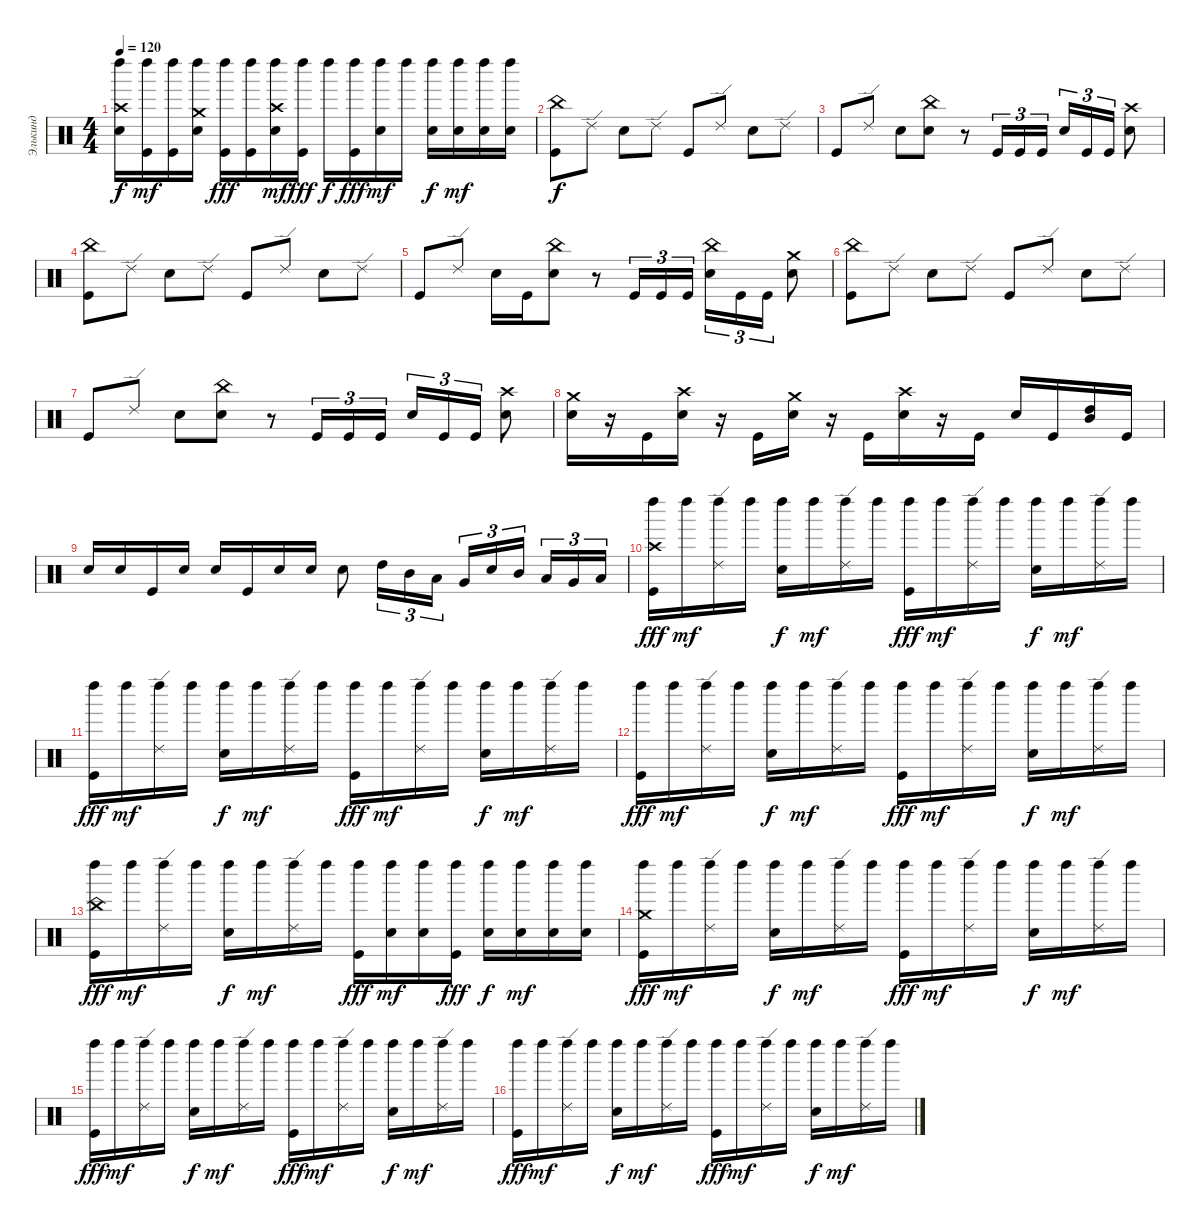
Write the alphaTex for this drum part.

\track ("Элькинд" "Элькинд") {instrument percussion}
\staff {score}
\articulation defaults
\ts (4 4)
\tempo 120
\clef neutral
\ks c
("Crash high (hit)" "Electric Snare (hit)" "Left Maraca (hit)").16{dy f} ("Kick (hit)" "Left Maraca (hit)").16{dy mf} ("Kick (hit)" "Left Maraca (hit)").16 ("Left Maraca (hit)" "Crash medium (hit)" "Electric Snare (hit)").16 ("Kick (hit)" "Left Maraca (hit)").16{dy fff} ("Left Maraca (hit)" "Kick (hit)").16 ("Left Maraca (hit)" "Crash high (hit)" "Electric Snare (hit)").16{dy mf} ("Left Maraca (hit)" "Kick (hit)").16{dy fff} "Left Maraca (hit)".16{dy f} ("Left Maraca (hit)" "Kick (hit)").16{dy fff} ("Electric Snare (hit)" "Left Maraca (hit)").16{dy mf} "Left Maraca (hit)".16 ("Left Maraca (hit)" "Electric Snare (hit)").16{dy f} ("Electric Snare (hit)" "Left Maraca (hit)").16{dy mf} ("Electric Snare (hit)" "Left Maraca (hit)").16 ("Electric Snare (hit)" "Left Maraca (hit)").16 |
("China (hit)" "Kick (hit)").8{dy f} "Ride (edge) 2".8 "Electric Snare (hit)".8 "Ride (edge) 2".8 "Kick (hit)".8 "Ride (edge) 2".8 "Electric Snare (hit)".8 "Ride (edge) 2".8 |
"Kick (hit)".8 "Ride (edge) 2".8 "Electric Snare (hit)".8 ("China (hit)" "Electric Snare (hit)").8 r.8 "Kick (hit)".16{tu (3 2)} "Kick (hit)".16{tu (3 2)} "Kick (hit)".16{tu (3 2)} "Electric Snare (hit)".16{tu (3 2)} "Kick (hit)".16{tu (3 2)} "Kick (hit)".16{tu (3 2)} ("Crash high (hit)" "Electric Snare (hit)").8 |
("China (hit)" "Kick (hit)").8 "Ride (edge) 2".8 "Electric Snare (hit)".8 "Ride (edge) 2".8 "Kick (hit)".8 "Ride (edge) 2".8 "Electric Snare (hit)".8 "Ride (edge) 2".8 |
"Kick (hit)".8 "Ride (edge) 2".8 "Electric Snare (hit)".16 "Kick (hit)".16 ("China (hit)" "Electric Snare (hit)").8 r.8 "Kick (hit)".16{tu (3 2)} "Kick (hit)".16{tu (3 2)} "Kick (hit)".16{tu (3 2)} ("China (hit)" "Electric Snare (hit)").16{tu (3 2)} "Kick (hit)".16{tu (3 2)} "Kick (hit)".16{tu (3 2)} ("Crash medium (hit)" "Electric Snare (hit)").8 |
("China (hit)" "Kick (hit)").8 "Ride (edge) 2".8 "Electric Snare (hit)".8 "Ride (edge) 2".8 "Kick (hit)".8 "Ride (edge) 2".8 "Electric Snare (hit)".8 "Ride (edge) 2".8 |
"Kick (hit)".8 "Ride (edge) 2".8 "Electric Snare (hit)".8 ("China (hit)" "Electric Snare (hit)").8 r.8 "Kick (hit)".16{tu (3 2)} "Kick (hit)".16{tu (3 2)} "Kick (hit)".16{tu (3 2)} "Electric Snare (hit)".16{tu (3 2)} "Kick (hit)".16{tu (3 2)} "Kick (hit)".16{tu (3 2)} ("Crash high (hit)" "Electric Snare (hit)").8 |
("Crash medium (hit)" "Electric Snare (hit)").16 r.16 "Kick (hit)".16 ("Crash high (hit)" "Electric Snare (hit)").16 r.16 "Kick (hit)".16 ("Crash medium (hit)" "Electric Snare (hit)").16 r.16 "Kick (hit)".16 ("Crash high (hit)" "Electric Snare (hit)").16 r.16 "Kick (hit)".16 "Electric Snare (hit)".16 "Kick (hit)".16 ("High Tom (hit)" "Mid Tom (hit)").16 "Kick (hit)".16 |
"Electric Snare (hit)".16 "Electric Snare (hit)".16 "Kick (hit)".16 "Electric Snare (hit)".16 "Electric Snare (hit)".16 "Kick (hit)".16 "Electric Snare (hit)".16 "Electric Snare (hit)".16 "Electric Snare (hit)".8 "High Tom (hit)".16{tu (3 2)} "Mid Tom (hit)".16{tu (3 2)} "Low Tom (hit)".16{tu (3 2)} "Very Low Tom (hit)".16{tu (3 2)} "Electric Snare (hit)".16{tu (3 2)} "Mid Tom (hit)".16{tu (3 2) beam splitsecondary} "Low Tom (hit)".16{tu (3 2)} "Very Low Tom (hit)".16{tu (3 2)} "Low Floor Tom (hit)".16{tu (3 2)} |
("Left Maraca (hit)" "Crash high (hit)" "Kick (hit)").16{dy fff} "Left Maraca (hit)".16{dy mf} ("Left Maraca (hit)" "Ride (edge) 2").16 "Left Maraca (hit)".16 ("Left Maraca (hit)" "Electric Snare (hit)").16{dy f} "Left Maraca (hit)".16{dy mf} ("Left Maraca (hit)" "Ride (edge) 2").16 "Left Maraca (hit)".16 ("Left Maraca (hit)" "Kick (hit)").16{dy fff} "Left Maraca (hit)".16{dy mf} ("Left Maraca (hit)" "Ride (edge) 2").16 "Left Maraca (hit)".16 ("Left Maraca (hit)" "Electric Snare (hit)").16{dy f} "Left Maraca (hit)".16{dy mf} ("Left Maraca (hit)" "Ride (edge) 2").16 "Left Maraca (hit)".16 |
("Left Maraca (hit)" "Kick (hit)").16{dy fff} "Left Maraca (hit)".16{dy mf} ("Left Maraca (hit)" "Ride (edge) 2").16 "Left Maraca (hit)".16 ("Left Maraca (hit)" "Electric Snare (hit)").16{dy f} "Left Maraca (hit)".16{dy mf} ("Left Maraca (hit)" "Ride (edge) 2").16 "Left Maraca (hit)".16 ("Left Maraca (hit)" "Kick (hit)").16{dy fff} "Left Maraca (hit)".16{dy mf} ("Left Maraca (hit)" "Ride (edge) 2").16 "Left Maraca (hit)".16 ("Left Maraca (hit)" "Electric Snare (hit)").16{dy f} "Left Maraca (hit)".16{dy mf} ("Left Maraca (hit)" "Ride (edge) 2").16 "Left Maraca (hit)".16 |
("Left Maraca (hit)" "Kick (hit)").16{dy fff} "Left Maraca (hit)".16{dy mf} ("Left Maraca (hit)" "Ride (edge) 2").16 "Left Maraca (hit)".16 ("Left Maraca (hit)" "Electric Snare (hit)").16{dy f} "Left Maraca (hit)".16{dy mf} ("Left Maraca (hit)" "Ride (edge) 2").16 "Left Maraca (hit)".16 ("Left Maraca (hit)" "Kick (hit)").16{dy fff} "Left Maraca (hit)".16{dy mf} ("Left Maraca (hit)" "Ride (edge) 2").16 "Left Maraca (hit)".16 ("Left Maraca (hit)" "Electric Snare (hit)").16{dy f} "Left Maraca (hit)".16{dy mf} ("Left Maraca (hit)" "Ride (edge) 2").16 "Left Maraca (hit)".16 |
("Kick (hit)" "China (hit)" "Left Maraca (hit)").16{dy fff} "Left Maraca (hit)".16{dy mf} ("Left Maraca (hit)" "Ride (edge) 2").16 "Left Maraca (hit)".16 ("Electric Snare (hit)" "Left Maraca (hit)").16{dy f} "Left Maraca (hit)".16{dy mf} ("Ride (edge) 2" "Left Maraca (hit)").16 "Left Maraca (hit)".16 ("Left Maraca (hit)" "Kick (hit)").16{dy fff} ("Electric Snare (hit)" "Left Maraca (hit)").16{dy mf} ("Left Maraca (hit)" "Electric Snare (hit)").16 ("Left Maraca (hit)" "Kick (hit)").16{dy fff} ("Electric Snare (hit)" "Left Maraca (hit)").16{dy f} ("Left Maraca (hit)" "Electric Snare (hit)").16{dy mf} ("Left Maraca (hit)" "Electric Snare (hit)").16 ("Electric Snare (hit)" "Left Maraca (hit)").16 |
("Left Maraca (hit)" "Crash medium (hit)" "Kick (hit)").16{dy fff} "Left Maraca (hit)".16{dy mf} ("Left Maraca (hit)" "Ride (edge) 2").16 "Left Maraca (hit)".16 ("Left Maraca (hit)" "Electric Snare (hit)").16{dy f} "Left Maraca (hit)".16{dy mf} ("Left Maraca (hit)" "Ride (edge) 2").16 "Left Maraca (hit)".16 ("Left Maraca (hit)" "Kick (hit)").16{dy fff} "Left Maraca (hit)".16{dy mf} ("Left Maraca (hit)" "Ride (edge) 2").16 "Left Maraca (hit)".16 ("Left Maraca (hit)" "Electric Snare (hit)").16{dy f} "Left Maraca (hit)".16{dy mf} ("Left Maraca (hit)" "Ride (edge) 2").16 "Left Maraca (hit)".16 |
("Left Maraca (hit)" "Kick (hit)").16{dy fff} "Left Maraca (hit)".16{dy mf} ("Left Maraca (hit)" "Ride (edge) 2").16 "Left Maraca (hit)".16 ("Left Maraca (hit)" "Electric Snare (hit)").16{dy f} "Left Maraca (hit)".16{dy mf} ("Left Maraca (hit)" "Ride (edge) 2").16 "Left Maraca (hit)".16 ("Left Maraca (hit)" "Kick (hit)").16{dy fff} "Left Maraca (hit)".16{dy mf} ("Left Maraca (hit)" "Ride (edge) 2").16 "Left Maraca (hit)".16 ("Left Maraca (hit)" "Electric Snare (hit)").16{dy f} "Left Maraca (hit)".16{dy mf} ("Left Maraca (hit)" "Ride (edge) 2").16 "Left Maraca (hit)".16 |
("Left Maraca (hit)" "Kick (hit)").16{dy fff} "Left Maraca (hit)".16{dy mf} ("Left Maraca (hit)" "Ride (edge) 2").16 "Left Maraca (hit)".16 ("Left Maraca (hit)" "Electric Snare (hit)").16{dy f} "Left Maraca (hit)".16{dy mf} ("Left Maraca (hit)" "Ride (edge) 2").16 "Left Maraca (hit)".16 ("Left Maraca (hit)" "Kick (hit)").16{dy fff} "Left Maraca (hit)".16{dy mf} ("Left Maraca (hit)" "Ride (edge) 2").16 "Left Maraca (hit)".16 ("Left Maraca (hit)" "Electric Snare (hit)").16{dy f} "Left Maraca (hit)".16{dy mf} ("Left Maraca (hit)" "Ride (edge) 2").16 "Left Maraca (hit)".16
